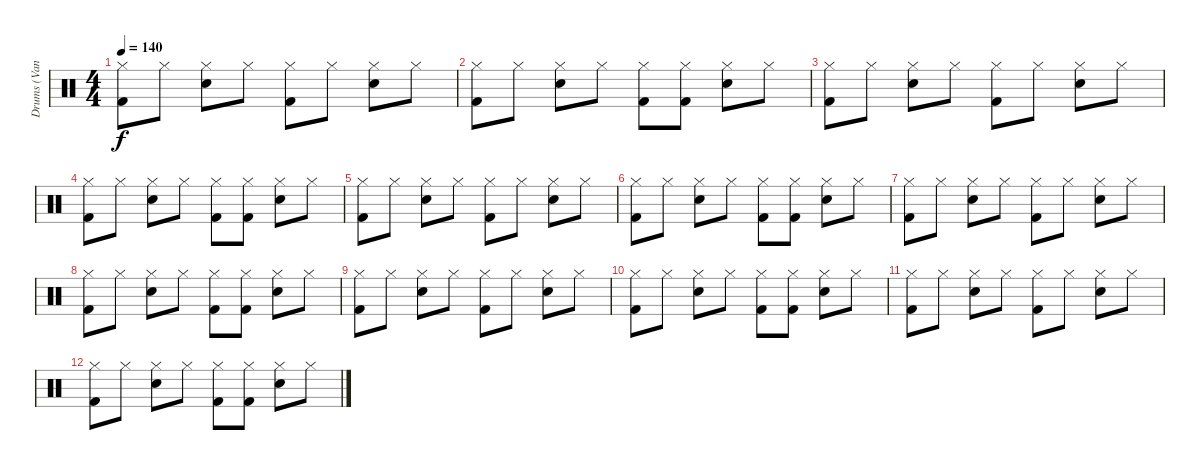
\track ("Drums (Vandel)" "Drums (Van") {instrument percussion}
\staff {score}
\articulation defaults
\ts (4 4)
\tempo 140
\clef neutral
\ks c
("Hi-Hat (closed)" "Kick (hit) 2").8{dy f} "Hi-Hat (closed)".8 ("Hi-Hat (closed)" "Snare (hit) 2").8 "Hi-Hat (closed)".8 ("Hi-Hat (closed)" "Kick (hit) 2").8 "Hi-Hat (closed)".8 ("Hi-Hat (closed)" "Snare (hit) 2").8 "Hi-Hat (closed)".8 |
("Hi-Hat (closed)" "Kick (hit) 2").8 "Hi-Hat (closed)".8 ("Hi-Hat (closed)" "Snare (hit) 2").8 "Hi-Hat (closed)".8 ("Hi-Hat (closed)" "Kick (hit) 2").8 ("Hi-Hat (closed)" "Kick (hit) 2").8 ("Hi-Hat (closed)" "Snare (hit) 2").8 "Hi-Hat (closed)".8 |
("Hi-Hat (closed)" "Kick (hit) 2").8 "Hi-Hat (closed)".8 ("Hi-Hat (closed)" "Snare (hit) 2").8 "Hi-Hat (closed)".8 ("Hi-Hat (closed)" "Kick (hit) 2").8 "Hi-Hat (closed)".8 ("Hi-Hat (closed)" "Snare (hit) 2").8 "Hi-Hat (closed)".8 |
("Hi-Hat (closed)" "Kick (hit) 2").8 "Hi-Hat (closed)".8 ("Hi-Hat (closed)" "Snare (hit) 2").8 "Hi-Hat (closed)".8 ("Hi-Hat (closed)" "Kick (hit) 2").8 ("Hi-Hat (closed)" "Kick (hit) 2").8 ("Hi-Hat (closed)" "Snare (hit) 2").8 "Hi-Hat (closed)".8 |
("Hi-Hat (closed)" "Kick (hit) 2").8 "Hi-Hat (closed)".8 ("Hi-Hat (closed)" "Snare (hit) 2").8 "Hi-Hat (closed)".8 ("Hi-Hat (closed)" "Kick (hit) 2").8 "Hi-Hat (closed)".8 ("Hi-Hat (closed)" "Snare (hit) 2").8 "Hi-Hat (closed)".8 |
("Hi-Hat (closed)" "Kick (hit) 2").8 "Hi-Hat (closed)".8 ("Hi-Hat (closed)" "Snare (hit) 2").8 "Hi-Hat (closed)".8 ("Hi-Hat (closed)" "Kick (hit) 2").8 ("Hi-Hat (closed)" "Kick (hit) 2").8 ("Hi-Hat (closed)" "Snare (hit) 2").8 "Hi-Hat (closed)".8 |
("Hi-Hat (closed)" "Kick (hit) 2").8 "Hi-Hat (closed)".8 ("Hi-Hat (closed)" "Snare (hit) 2").8 "Hi-Hat (closed)".8 ("Hi-Hat (closed)" "Kick (hit) 2").8 "Hi-Hat (closed)".8 ("Hi-Hat (closed)" "Snare (hit) 2").8 "Hi-Hat (closed)".8 |
("Hi-Hat (closed)" "Kick (hit) 2").8{volume 2} "Hi-Hat (closed)".8 ("Hi-Hat (closed)" "Snare (hit) 2").8 "Hi-Hat (closed)".8 ("Hi-Hat (closed)" "Kick (hit) 2").8 ("Hi-Hat (closed)" "Kick (hit) 2").8 ("Hi-Hat (closed)" "Snare (hit) 2").8 "Hi-Hat (closed)".8 |
("Hi-Hat (closed)" "Kick (hit) 2").8 "Hi-Hat (closed)".8 ("Hi-Hat (closed)" "Snare (hit) 2").8 "Hi-Hat (closed)".8 ("Hi-Hat (closed)" "Kick (hit) 2").8 "Hi-Hat (closed)".8 ("Hi-Hat (closed)" "Snare (hit) 2").8 "Hi-Hat (closed)".8 |
("Hi-Hat (closed)" "Kick (hit) 2").8 "Hi-Hat (closed)".8 ("Hi-Hat (closed)" "Snare (hit) 2").8 "Hi-Hat (closed)".8 ("Hi-Hat (closed)" "Kick (hit) 2").8 ("Hi-Hat (closed)" "Kick (hit) 2").8 ("Hi-Hat (closed)" "Snare (hit) 2").8 "Hi-Hat (closed)".8 |
("Hi-Hat (closed)" "Kick (hit) 2").8 "Hi-Hat (closed)".8 ("Hi-Hat (closed)" "Snare (hit) 2").8 "Hi-Hat (closed)".8 ("Hi-Hat (closed)" "Kick (hit) 2").8 "Hi-Hat (closed)".8 ("Hi-Hat (closed)" "Snare (hit) 2").8 "Hi-Hat (closed)".8 |
("Hi-Hat (closed)" "Kick (hit) 2").8 "Hi-Hat (closed)".8 ("Hi-Hat (closed)" "Snare (hit) 2").8 "Hi-Hat (closed)".8 ("Hi-Hat (closed)" "Kick (hit) 2").8 ("Hi-Hat (closed)" "Kick (hit) 2").8 ("Hi-Hat (closed)" "Snare (hit) 2").8 "Hi-Hat (closed)".8
